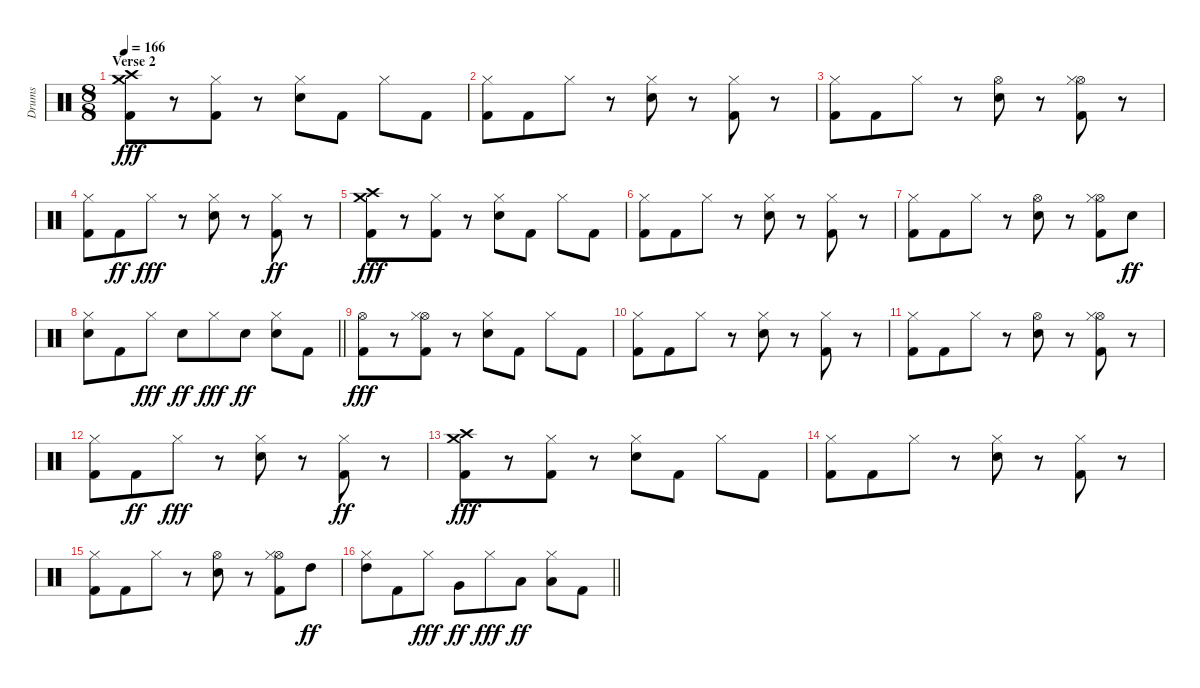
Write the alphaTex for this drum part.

\track ("Drums" "Drums") {instrument percussion}
\staff {score}
\articulation defaults
\ts (8 8)
\section ("" "Verse 2")
\tempo 166
\clef neutral
\ks c
("Crash high (hit)" "Crash medium (hit)" "Kick (hit) 2").8{dy fff} r.8 ("Hi-Hat (closed)" "Kick (hit) 2").8 r.8 ("Hi-Hat (closed)" "Electric Snare (hit)").8 "Kick (hit) 2".8 "Hi-Hat (closed)".8 "Kick (hit) 2".8 |
("Hi-Hat (closed)" "Kick (hit) 2").8 "Kick (hit) 2".8 "Hi-Hat (closed)".8 r.8 ("Hi-Hat (closed)" "Electric Snare (hit)").8 r.8 ("Hi-Hat (closed)" "Kick (hit) 2").8 r.8 |
("Hi-Hat (closed)" "Kick (hit) 2").8 "Kick (hit) 2".8 "Hi-Hat (closed)".8 r.8 ("Hi-Hat (open)" "Electric Snare (hit)").8 r.8 ("Hi-Hat (open)" "Hi-Hat (closed)" "Kick (hit) 2").8 r.8 |
("Hi-Hat (closed)" "Kick (hit) 2").8 "Kick (hit) 2".8{dy ff} "Hi-Hat (closed)".8{dy fff} r.8 ("Hi-Hat (closed)" "Electric Snare (hit)").8 r.8 ("Hi-Hat (closed)" "Kick (hit) 2").8{dy ff} r.8 |
("Crash high (hit)" "Crash medium (hit)" "Kick (hit) 2").8{dy fff} r.8 ("Hi-Hat (closed)" "Kick (hit) 2").8 r.8 ("Hi-Hat (closed)" "Electric Snare (hit)").8 "Kick (hit) 2".8 "Hi-Hat (closed)".8 "Kick (hit) 2".8 |
("Hi-Hat (closed)" "Kick (hit) 2").8 "Kick (hit) 2".8 "Hi-Hat (closed)".8 r.8 ("Hi-Hat (closed)" "Electric Snare (hit)").8 r.8 ("Hi-Hat (closed)" "Kick (hit) 2").8 r.8 |
("Hi-Hat (closed)" "Kick (hit) 2").8 "Kick (hit) 2".8 "Hi-Hat (closed)".8 r.8 ("Hi-Hat (open)" "Electric Snare (hit)").8 r.8 ("Hi-Hat (open)" "Hi-Hat (closed)" "Kick (hit) 2").8 "Electric Snare (hit)".8{dy ff} |
\barLineRight lightlight
("Hi-Hat (closed)" "Electric Snare (hit)").8 "Kick (hit) 2".8 "Hi-Hat (closed)".8{dy fff} "Electric Snare (hit)".8{dy ff} "Hi-Hat (closed)".8{dy fff} "Electric Snare (hit)".8{dy ff} ("Hi-Hat (closed)" "Electric Snare (hit)").8 "Kick (hit) 2".8 |
\section ("" "")
("Hi-Hat (open)" "Kick (hit) 2").8{dy fff} r.8 ("Hi-Hat (open)" "Hi-Hat (closed)" "Kick (hit) 2").8 r.8 ("Hi-Hat (closed)" "Electric Snare (hit)").8 "Kick (hit) 2".8 "Hi-Hat (closed)".8 "Kick (hit) 2".8 |
("Hi-Hat (closed)" "Kick (hit) 2").8 "Kick (hit) 2".8 "Hi-Hat (closed)".8 r.8 ("Hi-Hat (closed)" "Electric Snare (hit)").8 r.8 ("Hi-Hat (closed)" "Kick (hit) 2").8 r.8 |
("Hi-Hat (closed)" "Kick (hit) 2").8 "Kick (hit) 2".8 "Hi-Hat (closed)".8 r.8 ("Hi-Hat (open)" "Electric Snare (hit)").8 r.8 ("Hi-Hat (open)" "Hi-Hat (closed)" "Kick (hit) 2").8 r.8 |
("Hi-Hat (closed)" "Kick (hit) 2").8 "Kick (hit) 2".8{dy ff} "Hi-Hat (closed)".8{dy fff} r.8 ("Hi-Hat (closed)" "Electric Snare (hit)").8 r.8 ("Hi-Hat (closed)" "Kick (hit) 2").8{dy ff} r.8 |
("Crash high (hit)" "Crash medium (hit)" "Kick (hit) 2").8{dy fff} r.8 ("Hi-Hat (closed)" "Kick (hit) 2").8 r.8 ("Hi-Hat (closed)" "Electric Snare (hit)").8 "Kick (hit) 2".8 "Hi-Hat (closed)".8 "Kick (hit) 2".8 |
("Hi-Hat (closed)" "Kick (hit) 2").8 "Kick (hit) 2".8 "Hi-Hat (closed)".8 r.8 ("Hi-Hat (closed)" "Electric Snare (hit)").8 r.8 ("Hi-Hat (closed)" "Kick (hit) 2").8 r.8 |
("Hi-Hat (closed)" "Kick (hit) 2").8 "Kick (hit) 2".8 "Hi-Hat (closed)".8 r.8 ("Hi-Hat (open)" "Electric Snare (hit)").8 r.8 ("Hi-Hat (open)" "Hi-Hat (closed)" "Kick (hit) 2").8 "High Tom (hit)".8{dy ff} |
\barLineRight lightlight
("Hi-Hat (closed)" "High Tom (hit)").8 "Kick (hit) 2".8 "Hi-Hat (closed)".8{dy fff} "Very Low Tom (hit)".8{dy ff} "Hi-Hat (closed)".8{dy fff} "Low Floor Tom (hit)".8{dy ff} ("Hi-Hat (closed)" "Low Floor Tom (hit)").8 "Kick (hit) 2".8
